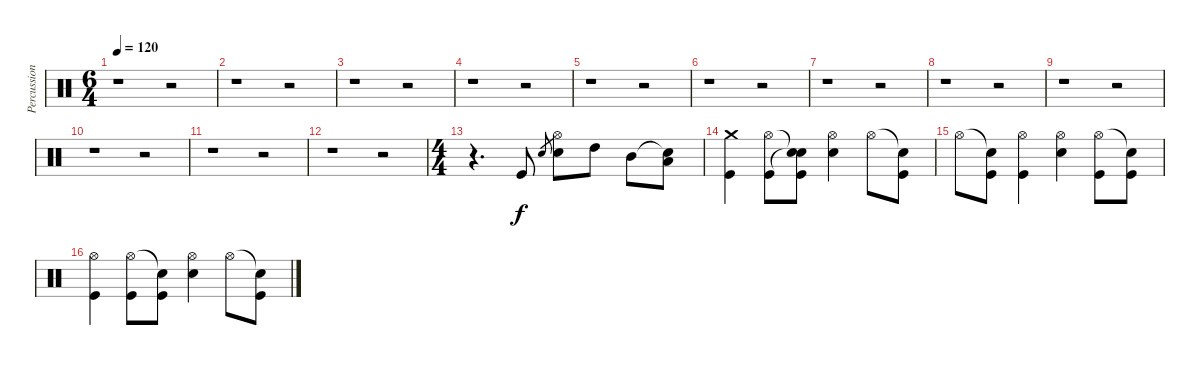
\track ("Percussion" "Percussion") {instrument percussion}
\staff {score}
\articulation defaults
\ts (6 4)
\tempo 120
\clef neutral
\ks c
r.1{dy f} r.2 |
r.1 r.2 |
r.1 r.2 |
r.1 r.2 |
r.1 r.2 |
r.1 r.2 |
r.1 r.2 |
r.1 r.2 |
r.1 r.2 |
r.1 r.2 |
r.1 r.2 |
r.1 r.2 |
\ts (4 4)
r.4{d} "Kick (hit)".8 "Electric Snare (hit)".8{gr} ("Hi-Hat (open)" "Electric Snare (hit)").8 "High Tom (hit)".8 "Mid Tom (hit)".8 ("Snare (hit)"{t} "Low Tom (hit)").8 |
("Crash medium (hit)" "Kick (hit)").4 ("Hi-Hat (open)" "Kick (hit)").8 ("Snare (hit)"{t} "Snare (hit)"{t} "Kick (hit)").8 ("Hi-Hat (open)" "Electric Snare (hit)").4 "Hi-Hat (open)".8 ("Snare (hit)"{t} "Kick (hit)").8 |
"Hi-Hat (open)".8 ("Snare (hit)"{t} "Kick (hit)").8 ("Hi-Hat (open)" "Kick (hit)").4 ("Hi-Hat (open)" "Electric Snare (hit)").4 ("Hi-Hat (open)" "Kick (hit)").8 ("Snare (hit)"{t} "Kick (hit)").8 |
("Hi-Hat (open)" "Kick (hit)").4 ("Hi-Hat (open)" "Kick (hit)").8 ("Snare (hit)"{t} "Kick (hit)").8 ("Hi-Hat (open)" "Electric Snare (hit)").4 "Hi-Hat (open)".8 ("Snare (hit)"{t} "Kick (hit)").8
